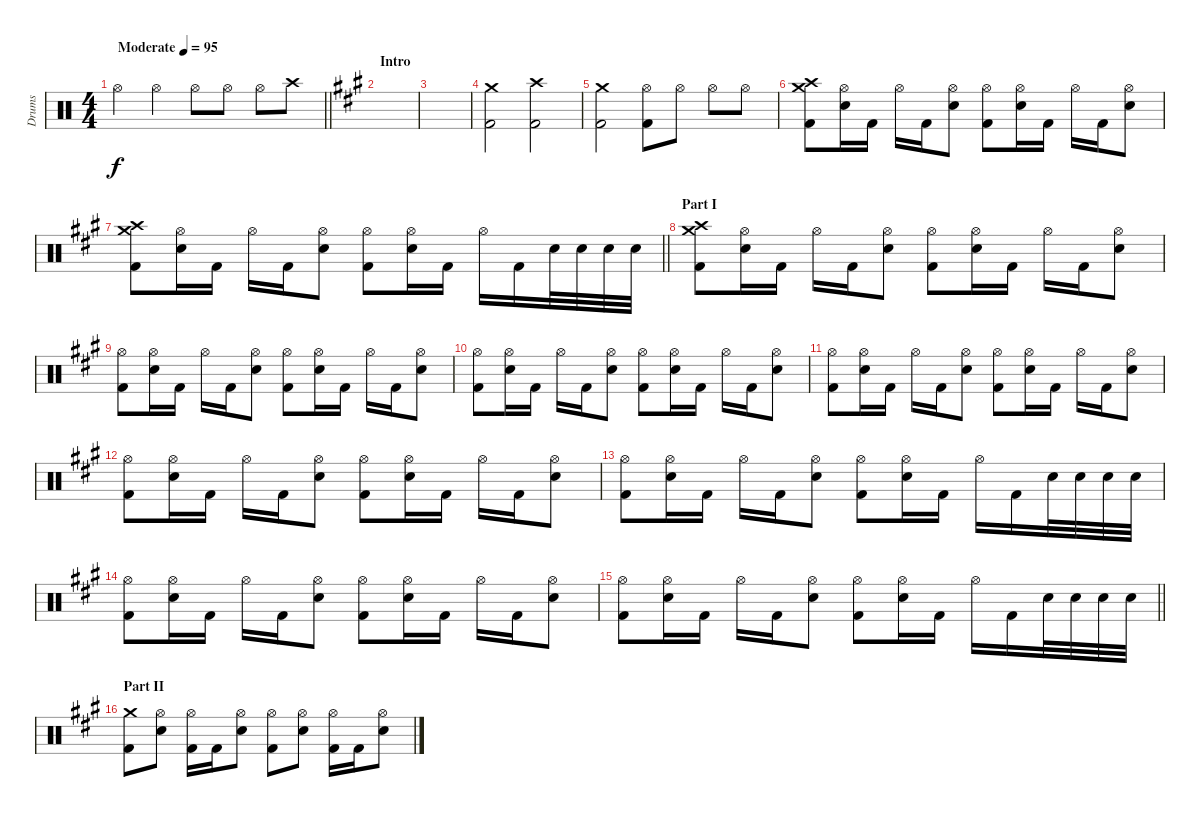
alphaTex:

\track ("Drums" "Drums") {instrument percussion}
\staff {score}
\articulation defaults
\ts (4 4)
\tempo (95 "Moderate")
\clef neutral
\barLineRight lightlight
\ks c "Hi-Hat (open)".4{dy f} "Hi-Hat (open)".4 "Hi-Hat (open)".8 "Hi-Hat (open)".8 "Hi-Hat (open)".8 "Crash high (hit)".8
|
\section ("" "Intro")
\ks a
|
|
("Crash medium (hit)" "Kick (hit) 2").2 ("Crash high (hit)" "Kick (hit) 2").2 |
("Crash medium (hit)" "Kick (hit) 2").2 ("Hi-Hat (open)" "Kick (hit) 2").8 "Hi-Hat (open)".8 "Hi-Hat (open)".8 "Hi-Hat (open)".8 |
("Crash high (hit)" "Crash medium (hit)" "Kick (hit) 2").8 ("Hi-Hat (open)" "Electric Snare (hit)").16 "Kick (hit) 2".16 "Hi-Hat (open)".16 "Kick (hit) 2".16 ("Hi-Hat (open)" "Electric Snare (hit)").8 ("Hi-Hat (open)" "Kick (hit) 2").8 ("Hi-Hat (open)" "Electric Snare (hit)").16 "Kick (hit) 2".16 "Hi-Hat (open)".16 "Kick (hit) 2".16 ("Hi-Hat (open)" "Electric Snare (hit)").8 |
\barLineRight lightlight
("Crash high (hit)" "Crash medium (hit)" "Kick (hit) 2").8 ("Hi-Hat (open)" "Electric Snare (hit)").16 "Kick (hit) 2".16 "Hi-Hat (open)".16 "Kick (hit) 2".16 ("Hi-Hat (open)" "Electric Snare (hit)").8 ("Hi-Hat (open)" "Kick (hit) 2").8 ("Hi-Hat (open)" "Electric Snare (hit)").16 "Kick (hit) 2".16 "Hi-Hat (open)".16 "Kick (hit) 2".16 "Electric Snare (hit)".32 "Electric Snare (hit)".32 "Electric Snare (hit)".32 "Electric Snare (hit)".32 |
\section ("" "Part I")
("Crash high (hit)" "Crash medium (hit)" "Kick (hit) 2").8 ("Hi-Hat (open)" "Electric Snare (hit)").16 "Kick (hit) 2".16 "Hi-Hat (open)".16 "Kick (hit) 2".16 ("Hi-Hat (open)" "Electric Snare (hit)").8 ("Hi-Hat (open)" "Kick (hit) 2").8 ("Hi-Hat (open)" "Electric Snare (hit)").16 "Kick (hit) 2".16 "Hi-Hat (open)".16 "Kick (hit) 2".16 ("Hi-Hat (open)" "Electric Snare (hit)").8 |
("Hi-Hat (open)" "Kick (hit) 2").8 ("Hi-Hat (open)" "Electric Snare (hit)").16 "Kick (hit) 2".16 "Hi-Hat (open)".16 "Kick (hit) 2".16 ("Hi-Hat (open)" "Electric Snare (hit)").8 ("Hi-Hat (open)" "Kick (hit) 2").8 ("Hi-Hat (open)" "Electric Snare (hit)").16 "Kick (hit) 2".16 "Hi-Hat (open)".16 "Kick (hit) 2".16 ("Hi-Hat (open)" "Electric Snare (hit)").8 |
("Hi-Hat (open)" "Kick (hit) 2").8 ("Hi-Hat (open)" "Electric Snare (hit)").16 "Kick (hit) 2".16 "Hi-Hat (open)".16 "Kick (hit) 2".16 ("Hi-Hat (open)" "Electric Snare (hit)").8 ("Hi-Hat (open)" "Kick (hit) 2").8 ("Hi-Hat (open)" "Electric Snare (hit)").16 "Kick (hit) 2".16 "Hi-Hat (open)".16 "Kick (hit) 2".16 ("Hi-Hat (open)" "Electric Snare (hit)").8 |
("Hi-Hat (open)" "Kick (hit) 2").8 ("Hi-Hat (open)" "Electric Snare (hit)").16 "Kick (hit) 2".16 "Hi-Hat (open)".16 "Kick (hit) 2".16 ("Hi-Hat (open)" "Electric Snare (hit)").8 ("Hi-Hat (open)" "Kick (hit) 2").8 ("Hi-Hat (open)" "Electric Snare (hit)").16 "Kick (hit) 2".16 "Hi-Hat (open)".16 "Kick (hit) 2".16 ("Hi-Hat (open)" "Electric Snare (hit)").8 |
("Hi-Hat (open)" "Kick (hit) 2").8 ("Hi-Hat (open)" "Electric Snare (hit)").16 "Kick (hit) 2".16 "Hi-Hat (open)".16 "Kick (hit) 2".16 ("Hi-Hat (open)" "Electric Snare (hit)").8 ("Hi-Hat (open)" "Kick (hit) 2").8 ("Hi-Hat (open)" "Electric Snare (hit)").16 "Kick (hit) 2".16 "Hi-Hat (open)".16 "Kick (hit) 2".16 ("Hi-Hat (open)" "Electric Snare (hit)").8 |
("Hi-Hat (open)" "Kick (hit) 2").8 ("Hi-Hat (open)" "Electric Snare (hit)").16 "Kick (hit) 2".16 "Hi-Hat (open)".16 "Kick (hit) 2".16 ("Hi-Hat (open)" "Electric Snare (hit)").8 ("Hi-Hat (open)" "Kick (hit) 2").8 ("Hi-Hat (open)" "Electric Snare (hit)").16 "Kick (hit) 2".16 "Hi-Hat (open)".16 "Kick (hit) 2".16 "Electric Snare (hit)".32 "Electric Snare (hit)".32 "Electric Snare (hit)".32 "Electric Snare (hit)".32 |
("Hi-Hat (open)" "Kick (hit) 2").8 ("Hi-Hat (open)" "Electric Snare (hit)").16 "Kick (hit) 2".16 "Hi-Hat (open)".16 "Kick (hit) 2".16 ("Hi-Hat (open)" "Electric Snare (hit)").8 ("Hi-Hat (open)" "Kick (hit) 2").8 ("Hi-Hat (open)" "Electric Snare (hit)").16 "Kick (hit) 2".16 "Hi-Hat (open)".16 "Kick (hit) 2".16 ("Hi-Hat (open)" "Electric Snare (hit)").8 |
\barLineRight lightlight
("Hi-Hat (open)" "Kick (hit) 2").8 ("Hi-Hat (open)" "Electric Snare (hit)").16 "Kick (hit) 2".16 "Hi-Hat (open)".16 "Kick (hit) 2".16 ("Hi-Hat (open)" "Electric Snare (hit)").8 ("Hi-Hat (open)" "Kick (hit) 2").8 ("Hi-Hat (open)" "Electric Snare (hit)").16 "Kick (hit) 2".16 "Hi-Hat (open)".16 "Kick (hit) 2".16 "Electric Snare (hit)".32 "Electric Snare (hit)".32 "Electric Snare (hit)".32 "Electric Snare (hit)".32 |
\section ("" "Part II")
("Crash medium (hit)" "Kick (hit) 2").8 ("Hi-Hat (open)" "Electric Snare (hit)").8 ("Hi-Hat (open)" "Kick (hit) 2").16 "Kick (hit) 2".16 ("Hi-Hat (open)" "Electric Snare (hit)").8 ("Hi-Hat (open)" "Kick (hit) 2").8 ("Hi-Hat (open)" "Electric Snare (hit)").8 ("Hi-Hat (open)" "Kick (hit) 2").16 "Kick (hit) 2".16 ("Hi-Hat (open)" "Electric Snare (hit)").8
